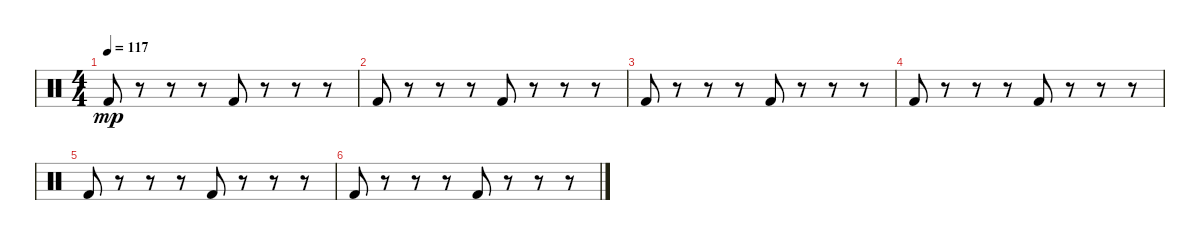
\track "" {instrument percussion}
\staff {score}
\articulation defaults
\ts (4 4)
\tempo 117
\clef neutral
\ks c "Kick (hit) 2".8{dy mp}
r.8 r.8 r.8 "Kick (hit) 2".8 r.8 r.8 r.8 |
"Kick (hit) 2".8 r.8 r.8 r.8 "Kick (hit) 2".8 r.8 r.8 r.8 |
"Kick (hit) 2".8 r.8 r.8 r.8 "Kick (hit) 2".8 r.8 r.8 r.8 |
"Kick (hit) 2".8 r.8 r.8 r.8 "Kick (hit) 2".8 r.8 r.8 r.8 |
"Kick (hit) 2".8 r.8 r.8 r.8 "Kick (hit) 2".8 r.8 r.8 r.8 |
"Kick (hit) 2".8 r.8 r.8 r.8 "Kick (hit) 2".8 r.8 r.8 r.8
